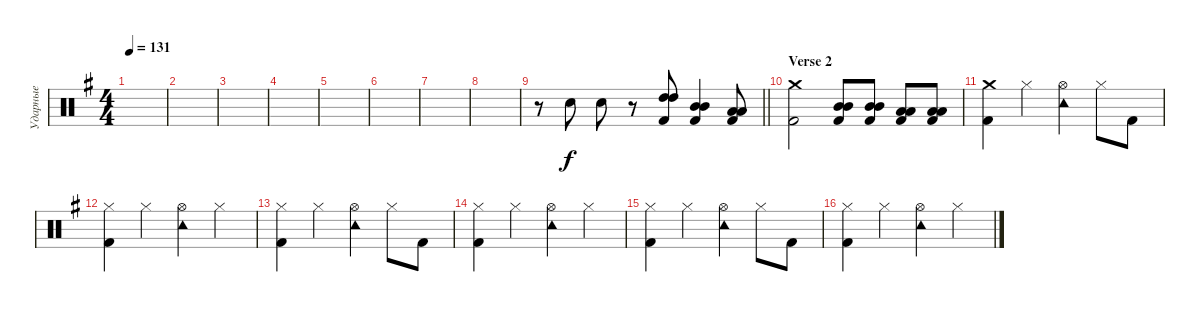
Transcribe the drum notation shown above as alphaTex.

\track ("Ударные" "Ударные") {instrument percussion}
\staff {score}
\articulation defaults
\ts (4 4)
\tempo 131
\clef neutral
\ks eminor
|
|
|
|
|
|
|
|
\barLineRight lightlight
r.8 "Snare (hit) 2".8 "Snare (hit) 2".8 r.8 ("High Tom (hit)" "High Tom (hit)" "Kick (hit) 2").8 ("Mid Tom (hit)" "Mid Tom (hit)" "Kick (hit) 2").4 ("Low Tom (hit)" "Low Tom (hit)" "Kick (hit) 2").8 |
\section ("" "Verse 2")
("Kick (hit) 2" "Crash medium (hit)").2 ("Mid Tom (hit)" "Mid Tom (hit)" "Kick (hit) 2").8 ("Mid Tom (hit)" "Mid Tom (hit)" "Kick (hit) 2").8 ("Low Tom (hit)" "Low Tom (hit)" "Kick (hit) 2").8 ("Low Tom (hit)" "Low Tom (hit)" "Kick (hit) 2").8 |
("Crash medium (hit)" "Kick (hit) 2").4 "Hi-Hat (closed)".4 ("Tambourine (hit)" "Hi-Hat (open)").4 "Hi-Hat (closed)".8 "Kick (hit) 2".8 |
("Hi-Hat (closed)" "Kick (hit) 2").4 "Hi-Hat (closed)".4 ("Tambourine (hit)" "Hi-Hat (open)").4 "Hi-Hat (closed)".4 |
("Hi-Hat (closed)" "Kick (hit) 2").4 "Hi-Hat (closed)".4 ("Tambourine (hit)" "Hi-Hat (open)").4 "Hi-Hat (closed)".8 "Kick (hit) 2".8 |
("Hi-Hat (closed)" "Kick (hit) 2").4 "Hi-Hat (closed)".4 ("Tambourine (hit)" "Hi-Hat (open)").4 "Hi-Hat (closed)".4 |
("Hi-Hat (closed)" "Kick (hit) 2").4 "Hi-Hat (closed)".4 ("Tambourine (hit)" "Hi-Hat (open)").4 "Hi-Hat (closed)".8 "Kick (hit) 2".8 |
("Hi-Hat (closed)" "Kick (hit) 2").4 "Hi-Hat (closed)".4 ("Tambourine (hit)" "Hi-Hat (open)").4 "Hi-Hat (closed)".4
